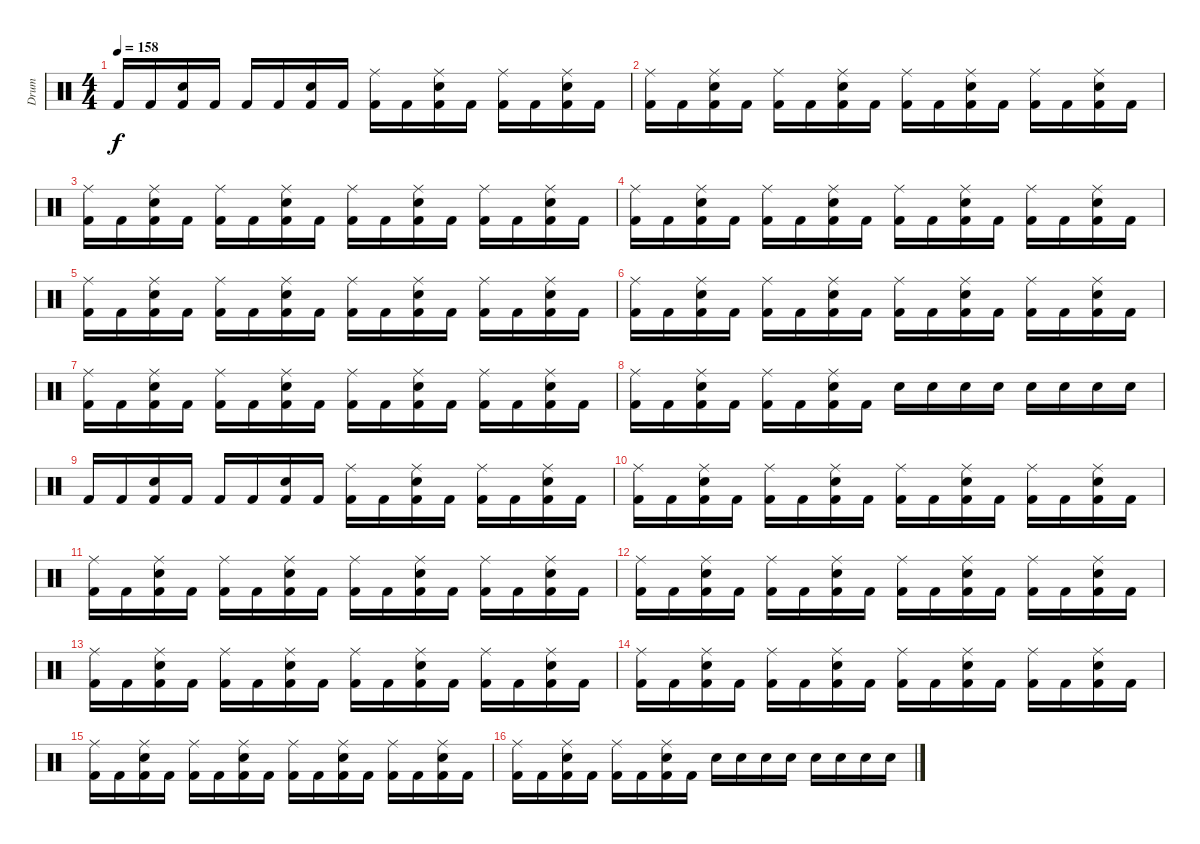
\track ("Drum" "Drum") {instrument percussion}
\staff {score}
\articulation defaults
\ts (4 4)
\tempo 158
\clef neutral
\ks c "Kick (hit) 2".16{dy f} "Kick (hit) 2".16
("Electric Snare (hit)" "Kick (hit) 2").16 "Kick (hit) 2".16 "Kick (hit) 2".16 "Kick (hit) 2".16 ("Electric Snare (hit)" "Kick (hit) 2").16 "Kick (hit) 2".16 ("Kick (hit) 2" "Ride (middle)").16 "Kick (hit) 2".16 ("Electric Snare (hit)" "Kick (hit) 2" "Ride (middle)").16 "Kick (hit) 2".16 ("Kick (hit) 2" "Ride (middle)").16 "Kick (hit) 2".16 ("Electric Snare (hit)" "Kick (hit) 2" "Ride (middle)").16 "Kick (hit) 2".16 |
("Kick (hit) 2" "Ride (middle)").16 "Kick (hit) 2".16 ("Electric Snare (hit)" "Kick (hit) 2" "Ride (middle)").16 "Kick (hit) 2".16 ("Kick (hit) 2" "Ride (middle)").16 "Kick (hit) 2".16 ("Electric Snare (hit)" "Kick (hit) 2" "Ride (middle)").16 "Kick (hit) 2".16 ("Kick (hit) 2" "Ride (middle)").16 "Kick (hit) 2".16 ("Electric Snare (hit)" "Kick (hit) 2" "Ride (middle)").16 "Kick (hit) 2".16 ("Kick (hit) 2" "Ride (middle)").16 "Kick (hit) 2".16 ("Electric Snare (hit)" "Kick (hit) 2" "Ride (middle)").16 "Kick (hit) 2".16 |
("Kick (hit) 2" "Ride (middle)").16 "Kick (hit) 2".16 ("Electric Snare (hit)" "Kick (hit) 2" "Ride (middle)").16 "Kick (hit) 2".16 ("Kick (hit) 2" "Ride (middle)").16 "Kick (hit) 2".16 ("Electric Snare (hit)" "Kick (hit) 2" "Ride (middle)").16 "Kick (hit) 2".16 ("Kick (hit) 2" "Ride (middle)").16 "Kick (hit) 2".16 ("Electric Snare (hit)" "Kick (hit) 2" "Ride (middle)").16 "Kick (hit) 2".16 ("Kick (hit) 2" "Ride (middle)").16 "Kick (hit) 2".16 ("Electric Snare (hit)" "Kick (hit) 2" "Ride (middle)").16 "Kick (hit) 2".16 |
("Kick (hit) 2" "Ride (middle)").16 "Kick (hit) 2".16 ("Electric Snare (hit)" "Kick (hit) 2" "Ride (middle)").16 "Kick (hit) 2".16 ("Kick (hit) 2" "Ride (middle)").16 "Kick (hit) 2".16 ("Electric Snare (hit)" "Kick (hit) 2" "Ride (middle)").16 "Kick (hit) 2".16 ("Kick (hit) 2" "Ride (middle)").16 "Kick (hit) 2".16 ("Electric Snare (hit)" "Kick (hit) 2" "Ride (middle)").16 "Kick (hit) 2".16 ("Kick (hit) 2" "Ride (middle)").16 "Kick (hit) 2".16 ("Electric Snare (hit)" "Kick (hit) 2" "Ride (middle)").16 "Kick (hit) 2".16 |
("Kick (hit) 2" "Ride (middle)").16 "Kick (hit) 2".16 ("Electric Snare (hit)" "Kick (hit) 2" "Ride (middle)").16 "Kick (hit) 2".16 ("Kick (hit) 2" "Ride (middle)").16 "Kick (hit) 2".16 ("Electric Snare (hit)" "Kick (hit) 2" "Ride (middle)").16 "Kick (hit) 2".16 ("Kick (hit) 2" "Ride (middle)").16 "Kick (hit) 2".16 ("Electric Snare (hit)" "Kick (hit) 2" "Ride (middle)").16 "Kick (hit) 2".16 ("Kick (hit) 2" "Ride (middle)").16 "Kick (hit) 2".16 ("Electric Snare (hit)" "Kick (hit) 2" "Ride (middle)").16 "Kick (hit) 2".16 |
("Kick (hit) 2" "Ride (middle)").16 "Kick (hit) 2".16 ("Electric Snare (hit)" "Kick (hit) 2" "Ride (middle)").16 "Kick (hit) 2".16 ("Kick (hit) 2" "Ride (middle)").16 "Kick (hit) 2".16 ("Electric Snare (hit)" "Kick (hit) 2" "Ride (middle)").16 "Kick (hit) 2".16 ("Kick (hit) 2" "Ride (middle)").16 "Kick (hit) 2".16 ("Electric Snare (hit)" "Kick (hit) 2" "Ride (middle)").16 "Kick (hit) 2".16 ("Kick (hit) 2" "Ride (middle)").16 "Kick (hit) 2".16 ("Electric Snare (hit)" "Kick (hit) 2" "Ride (middle)").16 "Kick (hit) 2".16 |
("Kick (hit) 2" "Ride (middle)").16 "Kick (hit) 2".16 ("Electric Snare (hit)" "Kick (hit) 2" "Ride (middle)").16 "Kick (hit) 2".16 ("Kick (hit) 2" "Ride (middle)").16 "Kick (hit) 2".16 ("Electric Snare (hit)" "Kick (hit) 2" "Ride (middle)").16 "Kick (hit) 2".16 ("Kick (hit) 2" "Ride (middle)").16 "Kick (hit) 2".16 ("Electric Snare (hit)" "Kick (hit) 2" "Ride (middle)").16 "Kick (hit) 2".16 ("Kick (hit) 2" "Ride (middle)").16 "Kick (hit) 2".16 ("Electric Snare (hit)" "Kick (hit) 2" "Ride (middle)").16 "Kick (hit) 2".16 |
("Kick (hit) 2" "Ride (middle)").16 "Kick (hit) 2".16 ("Electric Snare (hit)" "Kick (hit) 2" "Ride (middle)").16 "Kick (hit) 2".16 ("Kick (hit) 2" "Ride (middle)").16 "Kick (hit) 2".16 ("Electric Snare (hit)" "Kick (hit) 2" "Ride (middle)").16 "Kick (hit) 2".16 "Electric Snare (hit)".16 "Electric Snare (hit)".16 "Electric Snare (hit)".16 "Electric Snare (hit)".16 "Electric Snare (hit)".16 "Electric Snare (hit)".16 "Electric Snare (hit)".16 "Electric Snare (hit)".16 |
"Kick (hit) 2".16 "Kick (hit) 2".16 ("Electric Snare (hit)" "Kick (hit) 2").16 "Kick (hit) 2".16 "Kick (hit) 2".16 "Kick (hit) 2".16 ("Electric Snare (hit)" "Kick (hit) 2").16 "Kick (hit) 2".16 ("Kick (hit) 2" "Ride (middle)").16 "Kick (hit) 2".16 ("Electric Snare (hit)" "Kick (hit) 2" "Ride (middle)").16 "Kick (hit) 2".16 ("Kick (hit) 2" "Ride (middle)").16 "Kick (hit) 2".16 ("Electric Snare (hit)" "Kick (hit) 2" "Ride (middle)").16 "Kick (hit) 2".16 |
("Kick (hit) 2" "Ride (middle)").16 "Kick (hit) 2".16 ("Electric Snare (hit)" "Kick (hit) 2" "Ride (middle)").16 "Kick (hit) 2".16 ("Kick (hit) 2" "Ride (middle)").16 "Kick (hit) 2".16 ("Electric Snare (hit)" "Kick (hit) 2" "Ride (middle)").16 "Kick (hit) 2".16 ("Kick (hit) 2" "Ride (middle)").16 "Kick (hit) 2".16 ("Electric Snare (hit)" "Kick (hit) 2" "Ride (middle)").16 "Kick (hit) 2".16 ("Kick (hit) 2" "Ride (middle)").16 "Kick (hit) 2".16 ("Electric Snare (hit)" "Kick (hit) 2" "Ride (middle)").16 "Kick (hit) 2".16 |
("Kick (hit) 2" "Ride (middle)").16 "Kick (hit) 2".16 ("Electric Snare (hit)" "Kick (hit) 2" "Ride (middle)").16 "Kick (hit) 2".16 ("Kick (hit) 2" "Ride (middle)").16 "Kick (hit) 2".16 ("Electric Snare (hit)" "Kick (hit) 2" "Ride (middle)").16 "Kick (hit) 2".16 ("Kick (hit) 2" "Ride (middle)").16 "Kick (hit) 2".16 ("Electric Snare (hit)" "Kick (hit) 2" "Ride (middle)").16 "Kick (hit) 2".16 ("Kick (hit) 2" "Ride (middle)").16 "Kick (hit) 2".16 ("Electric Snare (hit)" "Kick (hit) 2" "Ride (middle)").16 "Kick (hit) 2".16 |
("Kick (hit) 2" "Ride (middle)").16 "Kick (hit) 2".16 ("Electric Snare (hit)" "Kick (hit) 2" "Ride (middle)").16 "Kick (hit) 2".16 ("Kick (hit) 2" "Ride (middle)").16 "Kick (hit) 2".16 ("Electric Snare (hit)" "Kick (hit) 2" "Ride (middle)").16 "Kick (hit) 2".16 ("Kick (hit) 2" "Ride (middle)").16 "Kick (hit) 2".16 ("Electric Snare (hit)" "Kick (hit) 2" "Ride (middle)").16 "Kick (hit) 2".16 ("Kick (hit) 2" "Ride (middle)").16 "Kick (hit) 2".16 ("Electric Snare (hit)" "Kick (hit) 2" "Ride (middle)").16 "Kick (hit) 2".16 |
("Kick (hit) 2" "Ride (middle)").16 "Kick (hit) 2".16 ("Electric Snare (hit)" "Kick (hit) 2" "Ride (middle)").16 "Kick (hit) 2".16 ("Kick (hit) 2" "Ride (middle)").16 "Kick (hit) 2".16 ("Electric Snare (hit)" "Kick (hit) 2" "Ride (middle)").16 "Kick (hit) 2".16 ("Kick (hit) 2" "Ride (middle)").16 "Kick (hit) 2".16 ("Electric Snare (hit)" "Kick (hit) 2" "Ride (middle)").16 "Kick (hit) 2".16 ("Kick (hit) 2" "Ride (middle)").16 "Kick (hit) 2".16 ("Electric Snare (hit)" "Kick (hit) 2" "Ride (middle)").16 "Kick (hit) 2".16 |
("Kick (hit) 2" "Ride (middle)").16 "Kick (hit) 2".16 ("Electric Snare (hit)" "Kick (hit) 2" "Ride (middle)").16 "Kick (hit) 2".16 ("Kick (hit) 2" "Ride (middle)").16 "Kick (hit) 2".16 ("Electric Snare (hit)" "Kick (hit) 2" "Ride (middle)").16 "Kick (hit) 2".16 ("Kick (hit) 2" "Ride (middle)").16 "Kick (hit) 2".16 ("Electric Snare (hit)" "Kick (hit) 2" "Ride (middle)").16 "Kick (hit) 2".16 ("Kick (hit) 2" "Ride (middle)").16 "Kick (hit) 2".16 ("Electric Snare (hit)" "Kick (hit) 2" "Ride (middle)").16 "Kick (hit) 2".16 |
("Kick (hit) 2" "Ride (middle)").16 "Kick (hit) 2".16 ("Electric Snare (hit)" "Kick (hit) 2" "Ride (middle)").16 "Kick (hit) 2".16 ("Kick (hit) 2" "Ride (middle)").16 "Kick (hit) 2".16 ("Electric Snare (hit)" "Kick (hit) 2" "Ride (middle)").16 "Kick (hit) 2".16 ("Kick (hit) 2" "Ride (middle)").16 "Kick (hit) 2".16 ("Electric Snare (hit)" "Kick (hit) 2" "Ride (middle)").16 "Kick (hit) 2".16 ("Kick (hit) 2" "Ride (middle)").16 "Kick (hit) 2".16 ("Electric Snare (hit)" "Kick (hit) 2" "Ride (middle)").16 "Kick (hit) 2".16 |
("Kick (hit) 2" "Ride (middle)").16 "Kick (hit) 2".16 ("Electric Snare (hit)" "Kick (hit) 2" "Ride (middle)").16 "Kick (hit) 2".16 ("Kick (hit) 2" "Ride (middle)").16 "Kick (hit) 2".16 ("Electric Snare (hit)" "Kick (hit) 2" "Ride (middle)").16 "Kick (hit) 2".16 "Electric Snare (hit)".16 "Electric Snare (hit)".16 "Electric Snare (hit)".16 "Electric Snare (hit)".16 "Electric Snare (hit)".16 "Electric Snare (hit)".16 "Electric Snare (hit)".16 "Electric Snare (hit)".16
